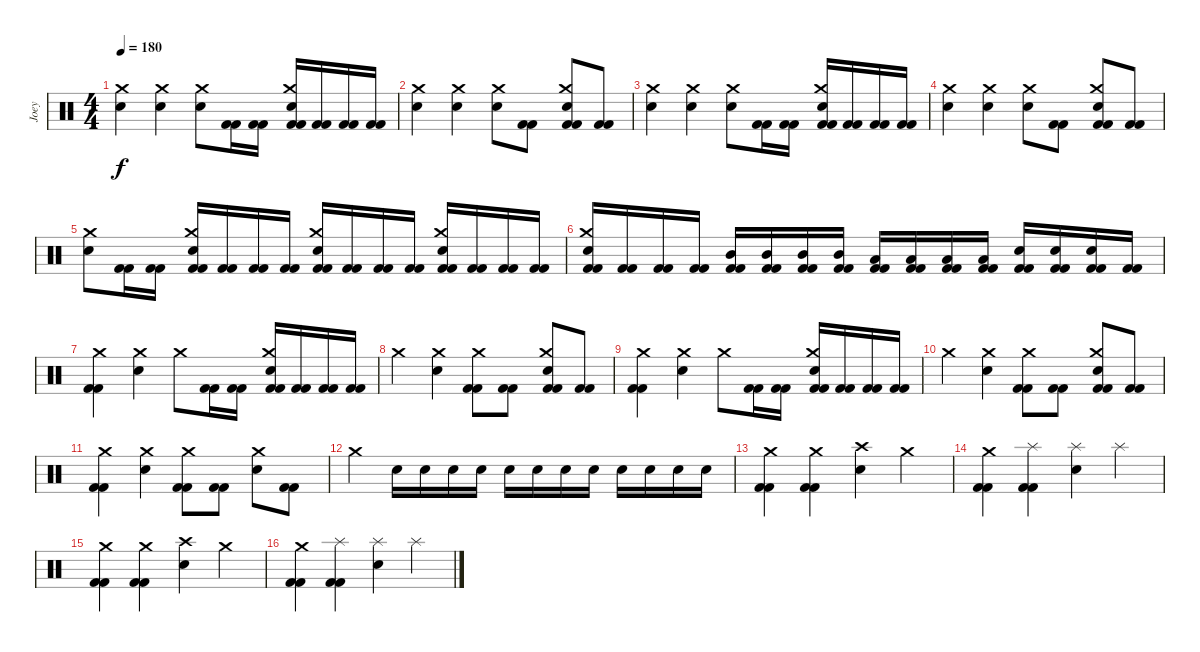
\track ("Joey" "Joey") {instrument percussion}
\staff {score}
\articulation defaults
\ts (4 4)
\tempo 180
\clef neutral
\ks c
("Electric Snare (hit)" "Crash medium (hit)").4{dy f} ("Electric Snare (hit)" "Crash medium (hit)").4 ("Electric Snare (hit)" "Crash medium (hit)").8 ("Kick (hit) 2" "Kick (hit) 2").16 ("Kick (hit) 2" "Kick (hit) 2").16 ("Electric Snare (hit)" "Crash medium (hit)" "Kick (hit) 2" "Kick (hit) 2").16 ("Kick (hit) 2" "Kick (hit) 2").16 ("Kick (hit) 2" "Kick (hit) 2").16 ("Kick (hit) 2" "Kick (hit) 2").16 |
("Electric Snare (hit)" "Crash medium (hit)").4 ("Electric Snare (hit)" "Crash medium (hit)").4 ("Electric Snare (hit)" "Crash medium (hit)").8 ("Kick (hit) 2" "Kick (hit) 2").8 ("Electric Snare (hit)" "Crash medium (hit)" "Kick (hit) 2" "Kick (hit) 2").8 ("Kick (hit) 2" "Kick (hit) 2").8 |
("Electric Snare (hit)" "Crash medium (hit)").4 ("Electric Snare (hit)" "Crash medium (hit)").4 ("Electric Snare (hit)" "Crash medium (hit)").8 ("Kick (hit) 2" "Kick (hit) 2").16 ("Kick (hit) 2" "Kick (hit) 2").16 ("Electric Snare (hit)" "Crash medium (hit)" "Kick (hit) 2" "Kick (hit) 2").16 ("Kick (hit) 2" "Kick (hit) 2").16 ("Kick (hit) 2" "Kick (hit) 2").16 ("Kick (hit) 2" "Kick (hit) 2").16 |
("Electric Snare (hit)" "Crash medium (hit)").4 ("Electric Snare (hit)" "Crash medium (hit)").4 ("Electric Snare (hit)" "Crash medium (hit)").8 ("Kick (hit) 2" "Kick (hit) 2").8 ("Electric Snare (hit)" "Crash medium (hit)" "Kick (hit) 2" "Kick (hit) 2").8 ("Kick (hit) 2" "Kick (hit) 2").8 |
("Electric Snare (hit)" "Crash medium (hit)").8 ("Kick (hit) 2" "Kick (hit) 2").16 ("Kick (hit) 2" "Kick (hit) 2").16 ("Electric Snare (hit)" "Crash medium (hit)" "Kick (hit) 2" "Kick (hit) 2").16 ("Kick (hit) 2" "Kick (hit) 2").16 ("Kick (hit) 2" "Kick (hit) 2").16 ("Kick (hit) 2" "Kick (hit) 2").16 ("Electric Snare (hit)" "Crash medium (hit)" "Kick (hit) 2" "Kick (hit) 2").16 ("Kick (hit) 2" "Kick (hit) 2").16 ("Kick (hit) 2" "Kick (hit) 2").16 ("Kick (hit) 2" "Kick (hit) 2").16 ("Electric Snare (hit)" "Crash medium (hit)" "Kick (hit) 2" "Kick (hit) 2").16 ("Kick (hit) 2" "Kick (hit) 2").16 ("Kick (hit) 2" "Kick (hit) 2").16 ("Kick (hit) 2" "Kick (hit) 2").16 |
("Electric Snare (hit)" "Crash medium (hit)" "Kick (hit) 2" "Kick (hit) 2").16 ("Kick (hit) 2" "Kick (hit) 2").16 ("Kick (hit) 2" "Kick (hit) 2").16 ("Kick (hit) 2" "Kick (hit) 2").16 ("Mid Tom (hit)" "Kick (hit) 2" "Kick (hit) 2").16 ("Mid Tom (hit)" "Kick (hit) 2" "Kick (hit) 2").16 ("Mid Tom (hit)" "Kick (hit) 2" "Kick (hit) 2").16 ("Mid Tom (hit)" "Kick (hit) 2" "Kick (hit) 2").16 ("Low Tom (hit)" "Kick (hit) 2" "Kick (hit) 2").16 ("Low Tom (hit)" "Kick (hit) 2" "Kick (hit) 2").16 ("Low Tom (hit)" "Kick (hit) 2" "Kick (hit) 2").16 ("Low Tom (hit)" "Kick (hit) 2" "Kick (hit) 2").16 ("Electric Snare (hit)" "Kick (hit) 2" "Kick (hit) 2").16 ("Electric Snare (hit)" "Kick (hit) 2" "Kick (hit) 2").16 ("Electric Snare (hit)" "Kick (hit) 2" "Kick (hit) 2").16 ("Kick (hit) 2" "Kick (hit) 2").16 |
("Crash medium (hit)" "Kick (hit) 2" "Kick (hit) 2").4 ("Electric Snare (hit)" "Crash medium (hit)").4 "Crash medium (hit)".8 ("Kick (hit) 2" "Kick (hit) 2").16 ("Kick (hit) 2" "Kick (hit) 2").16 ("Electric Snare (hit)" "Crash medium (hit)" "Kick (hit) 2" "Kick (hit) 2").16 ("Kick (hit) 2" "Kick (hit) 2").16 ("Kick (hit) 2" "Kick (hit) 2").16 ("Kick (hit) 2" "Kick (hit) 2").16 |
"Crash medium (hit)".4 ("Electric Snare (hit)" "Crash medium (hit)").4 ("Crash medium (hit)" "Kick (hit) 2" "Kick (hit) 2").8 ("Kick (hit) 2" "Kick (hit) 2").8 ("Electric Snare (hit)" "Crash medium (hit)" "Kick (hit) 2" "Kick (hit) 2").8 ("Kick (hit) 2" "Kick (hit) 2").8 |
("Crash medium (hit)" "Kick (hit) 2" "Kick (hit) 2").4 ("Electric Snare (hit)" "Crash medium (hit)").4 "Crash medium (hit)".8 ("Kick (hit) 2" "Kick (hit) 2").16 ("Kick (hit) 2" "Kick (hit) 2").16 ("Electric Snare (hit)" "Crash medium (hit)" "Kick (hit) 2" "Kick (hit) 2").16 ("Kick (hit) 2" "Kick (hit) 2").16 ("Kick (hit) 2" "Kick (hit) 2").16 ("Kick (hit) 2" "Kick (hit) 2").16 |
"Crash medium (hit)".4 ("Electric Snare (hit)" "Crash medium (hit)").4 ("Crash medium (hit)" "Kick (hit) 2" "Kick (hit) 2").8 ("Kick (hit) 2" "Kick (hit) 2").8 ("Electric Snare (hit)" "Crash medium (hit)" "Kick (hit) 2" "Kick (hit) 2").8 ("Kick (hit) 2" "Kick (hit) 2").8 |
("Crash medium (hit)" "Kick (hit) 2" "Kick (hit) 2").4 ("Electric Snare (hit)" "Crash medium (hit)").4 ("Crash medium (hit)" "Kick (hit) 2" "Kick (hit) 2").8 ("Kick (hit) 2" "Kick (hit) 2").8 ("Electric Snare (hit)" "Crash medium (hit)").8 ("Kick (hit) 2" "Kick (hit) 2").8 |
"Crash medium (hit)".4 "Electric Snare (hit)".16 "Electric Snare (hit)".16 "Electric Snare (hit)".16 "Electric Snare (hit)".16 "Electric Snare (hit)".16 "Electric Snare (hit)".16 "Electric Snare (hit)".16 "Electric Snare (hit)".16 "Electric Snare (hit)".16 "Electric Snare (hit)".16 "Electric Snare (hit)".16 "Electric Snare (hit)".16 |
("Crash medium (hit)" "Kick (hit) 2" "Kick (hit) 2").4 ("Crash medium (hit)" "Kick (hit) 2" "Kick (hit) 2").4 ("Electric Snare (hit)" "Crash high (hit)").4 "Crash medium (hit)".4 |
("Crash medium (hit)" "Kick (hit) 2" "Kick (hit) 2").4 ("Splash (hit)" "Kick (hit) 2" "Kick (hit) 2").4 ("Electric Snare (hit)" "Splash (hit)").4 "Splash (hit)".4 |
("Crash medium (hit)" "Kick (hit) 2" "Kick (hit) 2").4 ("Crash medium (hit)" "Kick (hit) 2" "Kick (hit) 2").4 ("Electric Snare (hit)" "Crash high (hit)").4 "Crash medium (hit)".4 |
("Crash medium (hit)" "Kick (hit) 2" "Kick (hit) 2").4 ("Splash (hit)" "Kick (hit) 2" "Kick (hit) 2").4 ("Electric Snare (hit)" "Splash (hit)").4 "Splash (hit)".4
